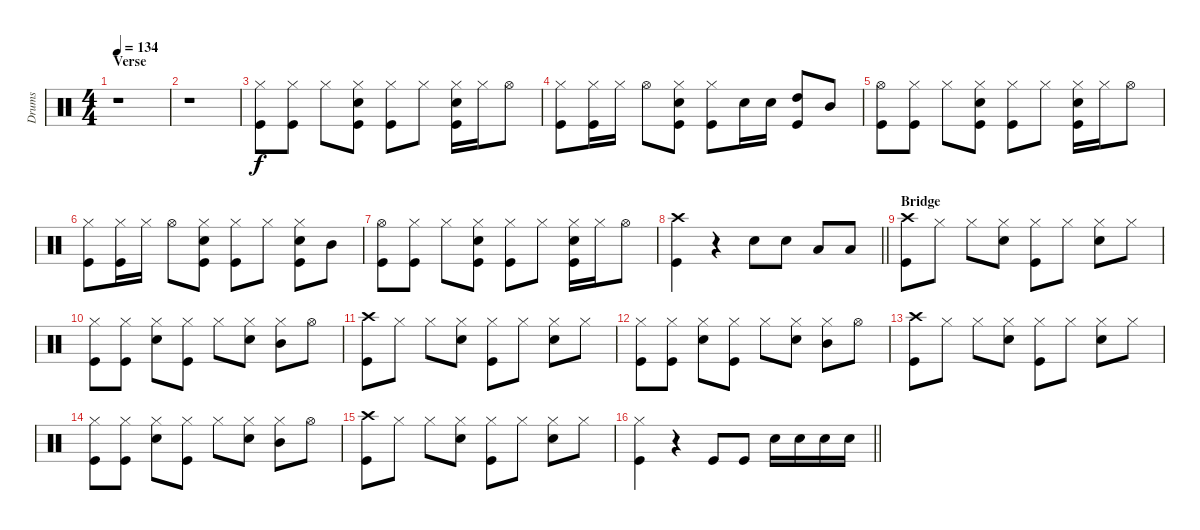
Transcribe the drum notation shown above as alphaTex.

\track ("Drums" "Drums") {instrument percussion}
\staff {score}
\articulation defaults
\ts (4 4)
\section ("" "Verse")
\tempo 134
\clef neutral
\ks c
r.1{dy f} |
r.1 |
("Hi-Hat (closed)" "Kick (hit)").8 ("Hi-Hat (closed)" "Kick (hit)").8 "Hi-Hat (closed)".8 ("Hi-Hat (closed)" "Snare (hit) 2" "Kick (hit)").8 ("Hi-Hat (closed)" "Kick (hit)").8 "Hi-Hat (closed)".8 ("Hi-Hat (closed)" "Snare (hit) 2" "Kick (hit)").16 "Hi-Hat (closed)".16 "Hi-Hat (open)".8 |
("Hi-Hat (closed)" "Kick (hit)").8 ("Hi-Hat (closed)" "Kick (hit)").16 "Hi-Hat (closed)".16 "Hi-Hat (open)".8 ("Hi-Hat (closed)" "Snare (hit) 2" "Kick (hit)").8 ("Hi-Hat (closed)" "Kick (hit)").8 "Snare (hit) 2".16 "Snare (hit) 2".16 ("High Tom (hit)" "Kick (hit)").8 "Mid Tom (hit)".8 |
("Hi-Hat (open)" "Kick (hit)").8 ("Hi-Hat (closed)" "Kick (hit)").8 "Hi-Hat (closed)".8 ("Hi-Hat (closed)" "Snare (hit) 2" "Kick (hit)").8 ("Hi-Hat (closed)" "Kick (hit)").8 "Hi-Hat (closed)".8 ("Hi-Hat (closed)" "Snare (hit) 2" "Kick (hit)").16 "Hi-Hat (closed)".16 "Hi-Hat (open)".8 |
("Hi-Hat (closed)" "Kick (hit)").8 ("Hi-Hat (closed)" "Kick (hit)").16 "Hi-Hat (closed)".16 "Hi-Hat (open)".8 ("Hi-Hat (closed)" "Snare (hit) 2" "Kick (hit)").8 ("Hi-Hat (closed)" "Kick (hit)").8 "Hi-Hat (closed)".8 ("Hi-Hat (closed)" "Snare (hit) 2" "Kick (hit)").8 "Mid Tom (hit)".8 |
("Hi-Hat (open)" "Kick (hit)").8 ("Hi-Hat (closed)" "Kick (hit)").8 "Hi-Hat (closed)".8 ("Hi-Hat (closed)" "Snare (hit) 2" "Kick (hit)").8 ("Hi-Hat (closed)" "Kick (hit)").8 "Hi-Hat (closed)".8 ("Hi-Hat (closed)" "Snare (hit) 2" "Kick (hit)").16 "Hi-Hat (closed)".16 "Hi-Hat (open)".8 |
\barLineRight lightlight
("Crash high (hit)" "Kick (hit)").4 r.4 "Snare (hit) 2".8 "Snare (hit) 2".8 "Low Tom (hit)".8 "Low Tom (hit)".8 |
\section ("" "Bridge")
("Crash high (hit)" "Kick (hit)").8 "Hi-Hat (closed)".8 "Hi-Hat (closed)".8 ("Hi-Hat (closed)" "Snare (hit) 2").8 ("Hi-Hat (closed)" "Kick (hit)").8 "Hi-Hat (closed)".8 ("Hi-Hat (closed)" "Snare (hit) 2").8 "Hi-Hat (closed)".8 |
("Hi-Hat (closed)" "Kick (hit)").8 ("Hi-Hat (closed)" "Kick (hit)").8 ("Hi-Hat (closed)" "Snare (hit) 2").8 ("Hi-Hat (closed)" "Kick (hit)").8 "Hi-Hat (closed)".8 ("Hi-Hat (closed)" "Snare (hit) 2").8 ("Hi-Hat (closed)" "Mid Tom (hit)").8 "Hi-Hat (open)".8 |
("Crash high (hit)" "Kick (hit)").8 "Hi-Hat (closed)".8 "Hi-Hat (closed)".8 ("Hi-Hat (closed)" "Snare (hit) 2").8 ("Hi-Hat (closed)" "Kick (hit)").8 "Hi-Hat (closed)".8 ("Hi-Hat (closed)" "Snare (hit) 2").8 "Hi-Hat (closed)".8 |
("Hi-Hat (closed)" "Kick (hit)").8 ("Hi-Hat (closed)" "Kick (hit)").8 ("Hi-Hat (closed)" "Snare (hit) 2").8 ("Hi-Hat (closed)" "Kick (hit)").8 "Hi-Hat (closed)".8 ("Hi-Hat (closed)" "Snare (hit) 2").8 ("Hi-Hat (closed)" "Mid Tom (hit)").8 "Hi-Hat (open)".8 |
("Crash high (hit)" "Kick (hit)").8 "Hi-Hat (closed)".8 "Hi-Hat (closed)".8 ("Hi-Hat (closed)" "Snare (hit) 2").8 ("Hi-Hat (closed)" "Kick (hit)").8 "Hi-Hat (closed)".8 ("Hi-Hat (closed)" "Snare (hit) 2").8 "Hi-Hat (closed)".8 |
("Hi-Hat (closed)" "Kick (hit)").8 ("Hi-Hat (closed)" "Kick (hit)").8 ("Hi-Hat (closed)" "Snare (hit) 2").8 ("Hi-Hat (closed)" "Kick (hit)").8 "Hi-Hat (closed)".8 ("Hi-Hat (closed)" "Snare (hit) 2").8 ("Hi-Hat (closed)" "Mid Tom (hit)").8 "Hi-Hat (open)".8 |
("Crash high (hit)" "Kick (hit)").8 "Hi-Hat (closed)".8 "Hi-Hat (closed)".8 ("Hi-Hat (closed)" "Snare (hit) 2").8 ("Hi-Hat (closed)" "Kick (hit)").8 "Hi-Hat (closed)".8 ("Hi-Hat (closed)" "Snare (hit) 2").8 "Hi-Hat (closed)".8 |
\barLineRight lightlight
("Hi-Hat (closed)" "Kick (hit)").4 r.4 "Kick (hit)".8 "Kick (hit)".8 "Snare (hit) 2".16 "Snare (hit) 2".16 "Snare (hit) 2".16 "Snare (hit) 2".16
